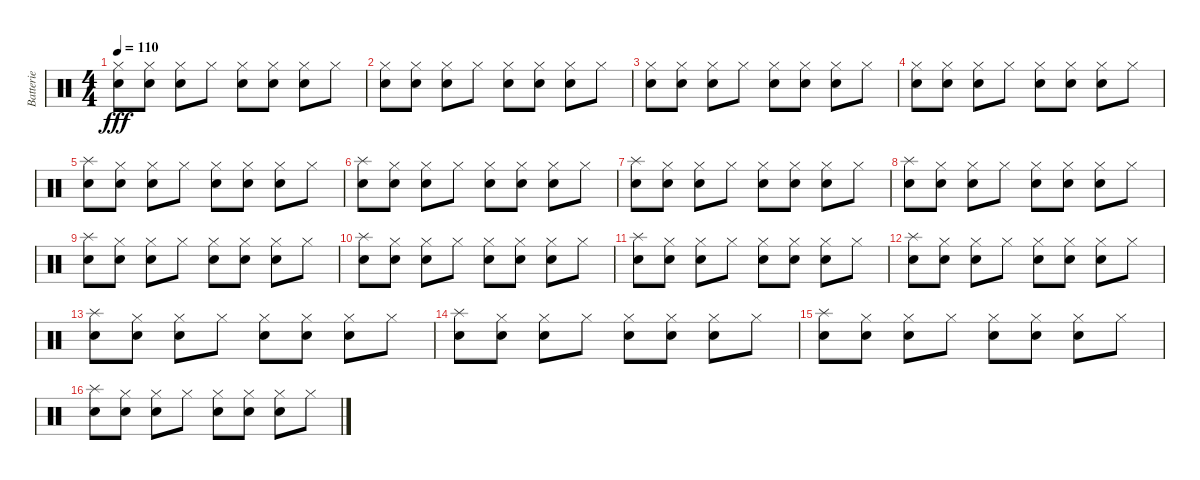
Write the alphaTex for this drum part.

\track ("Batterie" "Batterie") {instrument percussion}
\staff {score}
\articulation defaults
\ts (4 4)
\tempo 110
\clef neutral
\ks c
("Hi-Hat (closed)" "Electric Snare (hit)").8{dy fff} ("Hi-Hat (closed)" "Electric Snare (hit)").8 ("Hi-Hat (closed)" "Electric Snare (hit)").8 "Hi-Hat (closed)".8 ("Hi-Hat (closed)" "Electric Snare (hit)").8 ("Hi-Hat (closed)" "Electric Snare (hit)").8 ("Hi-Hat (closed)" "Electric Snare (hit)").8 "Hi-Hat (closed)".8 |
("Hi-Hat (closed)" "Electric Snare (hit)").8 ("Hi-Hat (closed)" "Electric Snare (hit)").8 ("Hi-Hat (closed)" "Electric Snare (hit)").8 "Hi-Hat (closed)".8 ("Hi-Hat (closed)" "Electric Snare (hit)").8 ("Hi-Hat (closed)" "Electric Snare (hit)").8 ("Hi-Hat (closed)" "Electric Snare (hit)").8 "Hi-Hat (closed)".8 |
("Hi-Hat (closed)" "Electric Snare (hit)").8 ("Hi-Hat (closed)" "Electric Snare (hit)").8 ("Hi-Hat (closed)" "Electric Snare (hit)").8 "Hi-Hat (closed)".8 ("Hi-Hat (closed)" "Electric Snare (hit)").8 ("Hi-Hat (closed)" "Electric Snare (hit)").8 ("Hi-Hat (closed)" "Electric Snare (hit)").8 "Hi-Hat (closed)".8 |
("Hi-Hat (closed)" "Electric Snare (hit)").8 ("Hi-Hat (closed)" "Electric Snare (hit)").8 ("Hi-Hat (closed)" "Electric Snare (hit)").8 "Hi-Hat (closed)".8 ("Hi-Hat (closed)" "Electric Snare (hit)").8 ("Hi-Hat (closed)" "Electric Snare (hit)").8 ("Hi-Hat (closed)" "Electric Snare (hit)").8 "Hi-Hat (closed)".8 |
("Splash (hit)" "Electric Snare (hit)").8 ("Hi-Hat (closed)" "Electric Snare (hit)").8 ("Hi-Hat (closed)" "Electric Snare (hit)").8 "Hi-Hat (closed)".8 ("Hi-Hat (closed)" "Electric Snare (hit)").8 ("Hi-Hat (closed)" "Electric Snare (hit)").8 ("Hi-Hat (closed)" "Electric Snare (hit)").8 "Hi-Hat (closed)".8 |
("Splash (hit)" "Electric Snare (hit)").8 ("Hi-Hat (closed)" "Electric Snare (hit)").8 ("Hi-Hat (closed)" "Electric Snare (hit)").8 "Hi-Hat (closed)".8 ("Hi-Hat (closed)" "Electric Snare (hit)").8 ("Hi-Hat (closed)" "Electric Snare (hit)").8 ("Hi-Hat (closed)" "Electric Snare (hit)").8 "Hi-Hat (closed)".8 |
("Splash (hit)" "Electric Snare (hit)").8 ("Hi-Hat (closed)" "Electric Snare (hit)").8 ("Hi-Hat (closed)" "Electric Snare (hit)").8 "Hi-Hat (closed)".8 ("Hi-Hat (closed)" "Electric Snare (hit)").8 ("Hi-Hat (closed)" "Electric Snare (hit)").8 ("Hi-Hat (closed)" "Electric Snare (hit)").8 "Hi-Hat (closed)".8 |
("Splash (hit)" "Electric Snare (hit)").8 ("Hi-Hat (closed)" "Electric Snare (hit)").8 ("Hi-Hat (closed)" "Electric Snare (hit)").8 "Hi-Hat (closed)".8 ("Hi-Hat (closed)" "Electric Snare (hit)").8 ("Hi-Hat (closed)" "Electric Snare (hit)").8 ("Hi-Hat (closed)" "Electric Snare (hit)").8 "Hi-Hat (closed)".8 |
("Splash (hit)" "Electric Snare (hit)").8 ("Hi-Hat (closed)" "Electric Snare (hit)").8 ("Hi-Hat (closed)" "Electric Snare (hit)").8 "Hi-Hat (closed)".8 ("Hi-Hat (closed)" "Electric Snare (hit)").8 ("Hi-Hat (closed)" "Electric Snare (hit)").8 ("Hi-Hat (closed)" "Electric Snare (hit)").8 "Hi-Hat (closed)".8 |
("Splash (hit)" "Electric Snare (hit)").8 ("Hi-Hat (closed)" "Electric Snare (hit)").8 ("Hi-Hat (closed)" "Electric Snare (hit)").8 "Hi-Hat (closed)".8 ("Hi-Hat (closed)" "Electric Snare (hit)").8 ("Hi-Hat (closed)" "Electric Snare (hit)").8 ("Hi-Hat (closed)" "Electric Snare (hit)").8 "Hi-Hat (closed)".8 |
("Splash (hit)" "Electric Snare (hit)").8 ("Hi-Hat (closed)" "Electric Snare (hit)").8 ("Hi-Hat (closed)" "Electric Snare (hit)").8 "Hi-Hat (closed)".8 ("Hi-Hat (closed)" "Electric Snare (hit)").8 ("Hi-Hat (closed)" "Electric Snare (hit)").8 ("Hi-Hat (closed)" "Electric Snare (hit)").8 "Hi-Hat (closed)".8 |
("Splash (hit)" "Electric Snare (hit)").8 ("Hi-Hat (closed)" "Electric Snare (hit)").8 ("Hi-Hat (closed)" "Electric Snare (hit)").8 "Hi-Hat (closed)".8 ("Hi-Hat (closed)" "Electric Snare (hit)").8 ("Hi-Hat (closed)" "Electric Snare (hit)").8 ("Hi-Hat (closed)" "Electric Snare (hit)").8 "Hi-Hat (closed)".8 |
("Splash (hit)" "Electric Snare (hit)").8 ("Hi-Hat (closed)" "Electric Snare (hit)").8 ("Hi-Hat (closed)" "Electric Snare (hit)").8 "Hi-Hat (closed)".8 ("Hi-Hat (closed)" "Electric Snare (hit)").8 ("Hi-Hat (closed)" "Electric Snare (hit)").8 ("Hi-Hat (closed)" "Electric Snare (hit)").8 "Hi-Hat (closed)".8 |
("Splash (hit)" "Electric Snare (hit)").8 ("Hi-Hat (closed)" "Electric Snare (hit)").8 ("Hi-Hat (closed)" "Electric Snare (hit)").8 "Hi-Hat (closed)".8 ("Hi-Hat (closed)" "Electric Snare (hit)").8 ("Hi-Hat (closed)" "Electric Snare (hit)").8 ("Hi-Hat (closed)" "Electric Snare (hit)").8 "Hi-Hat (closed)".8 |
("Splash (hit)" "Electric Snare (hit)").8 ("Hi-Hat (closed)" "Electric Snare (hit)").8 ("Hi-Hat (closed)" "Electric Snare (hit)").8 "Hi-Hat (closed)".8 ("Hi-Hat (closed)" "Electric Snare (hit)").8 ("Hi-Hat (closed)" "Electric Snare (hit)").8 ("Hi-Hat (closed)" "Electric Snare (hit)").8 "Hi-Hat (closed)".8 |
("Splash (hit)" "Electric Snare (hit)").8 ("Hi-Hat (closed)" "Electric Snare (hit)").8 ("Hi-Hat (closed)" "Electric Snare (hit)").8 "Hi-Hat (closed)".8 ("Hi-Hat (closed)" "Electric Snare (hit)").8 ("Hi-Hat (closed)" "Electric Snare (hit)").8 ("Hi-Hat (closed)" "Electric Snare (hit)").8 "Hi-Hat (closed)".8
